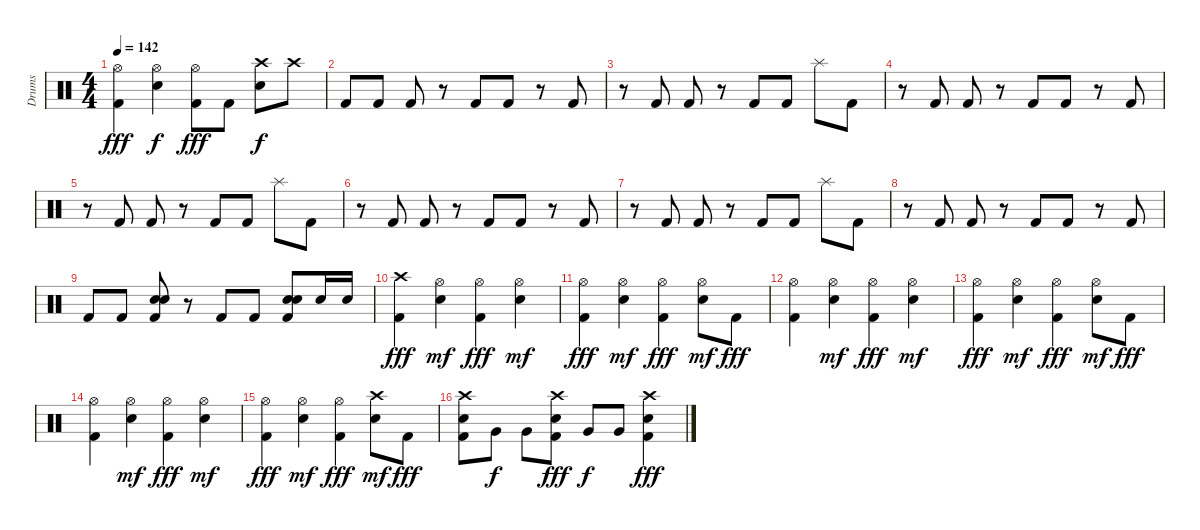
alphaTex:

\track ("Drums" "Drums") {instrument percussion}
\staff {score}
\articulation defaults
\ts (4 4)
\tempo 142
\clef neutral
\ks c
("Hi-Hat (open)" "Kick (hit) 2").4{dy fff} ("Hi-Hat (open)" "Snare (hit) 2").4{dy f} ("Hi-Hat (open)" "Kick (hit) 2").8{dy fff} "Kick (hit) 2".8 ("Crash high (hit)" "Snare (hit) 2").8{dy f} "Crash high (hit)".8 |
"Kick (hit) 2".8 "Kick (hit) 2".8 "Kick (hit) 2".8 r.8 "Kick (hit) 2".8 "Kick (hit) 2".8 r.8 "Kick (hit) 2".8 |
r.8 "Kick (hit) 2".8 "Kick (hit) 2".8 r.8 "Kick (hit) 2".8 "Kick (hit) 2".8 "Splash (hit)".8 "Kick (hit) 2".8 |
r.8 "Kick (hit) 2".8 "Kick (hit) 2".8 r.8 "Kick (hit) 2".8 "Kick (hit) 2".8 r.8 "Kick (hit) 2".8 |
r.8 "Kick (hit) 2".8 "Kick (hit) 2".8 r.8 "Kick (hit) 2".8 "Kick (hit) 2".8 "Splash (hit)".8 "Kick (hit) 2".8 |
r.8 "Kick (hit) 2".8 "Kick (hit) 2".8 r.8 "Kick (hit) 2".8 "Kick (hit) 2".8 r.8 "Kick (hit) 2".8 |
r.8 "Kick (hit) 2".8 "Kick (hit) 2".8 r.8 "Kick (hit) 2".8 "Kick (hit) 2".8 "Splash (hit)".8 "Kick (hit) 2".8 |
r.8 "Kick (hit) 2".8 "Kick (hit) 2".8 r.8 "Kick (hit) 2".8 "Kick (hit) 2".8 r.8 "Kick (hit) 2".8 |
"Kick (hit) 2".8 "Kick (hit) 2".8 ("Electric Snare (hit)" "Snare (hit) 2" "Kick (hit) 2").8 r.8 "Kick (hit) 2".8 "Kick (hit) 2".8 ("Electric Snare (hit)" "Snare (hit) 2" "Kick (hit) 2").8 "Snare (hit) 2".16 "Snare (hit) 2".16 |
("Crash high (hit)" "Kick (hit) 2").4{dy fff} ("Hi-Hat (open)" "Snare (hit) 2").4{dy mf} ("Hi-Hat (open)" "Kick (hit) 2").4{dy fff} ("Hi-Hat (open)" "Snare (hit) 2").4{dy mf} |
("Hi-Hat (open)" "Kick (hit) 2").4{dy fff} ("Hi-Hat (open)" "Snare (hit) 2").4{dy mf} ("Hi-Hat (open)" "Kick (hit) 2").4{dy fff} ("Hi-Hat (open)" "Snare (hit) 2").8{dy mf} "Kick (hit) 2".8{dy fff} |
("Hi-Hat (open)" "Kick (hit) 2").4 ("Hi-Hat (open)" "Snare (hit) 2").4{dy mf} ("Hi-Hat (open)" "Kick (hit) 2").4{dy fff} ("Hi-Hat (open)" "Snare (hit) 2").4{dy mf} |
("Hi-Hat (open)" "Kick (hit) 2").4{dy fff} ("Hi-Hat (open)" "Snare (hit) 2").4{dy mf} ("Hi-Hat (open)" "Kick (hit) 2").4{dy fff} ("Hi-Hat (open)" "Snare (hit) 2").8{dy mf} "Kick (hit) 2".8{dy fff} |
("Hi-Hat (open)" "Kick (hit) 2").4 ("Hi-Hat (open)" "Snare (hit) 2").4{dy mf} ("Hi-Hat (open)" "Kick (hit) 2").4{dy fff} ("Hi-Hat (open)" "Snare (hit) 2").4{dy mf} |
("Hi-Hat (open)" "Kick (hit) 2").4{dy fff} ("Hi-Hat (open)" "Snare (hit) 2").4{dy mf} ("Hi-Hat (open)" "Kick (hit) 2").4{dy fff} ("Crash high (hit)" "Snare (hit) 2").8{dy mf} "Kick (hit) 2".8{dy fff} |
("Crash high (hit)" "Snare (hit) 2" "Kick (hit) 2").8 "Very Low Tom (hit)".8{dy f} "Very Low Tom (hit)".8 ("Crash high (hit)" "Snare (hit) 2" "Kick (hit) 2").8{dy fff} "Very Low Tom (hit)".8{dy f} "Very Low Tom (hit)".8 ("Crash high (hit)" "Snare (hit) 2" "Kick (hit) 2").4{dy fff}
